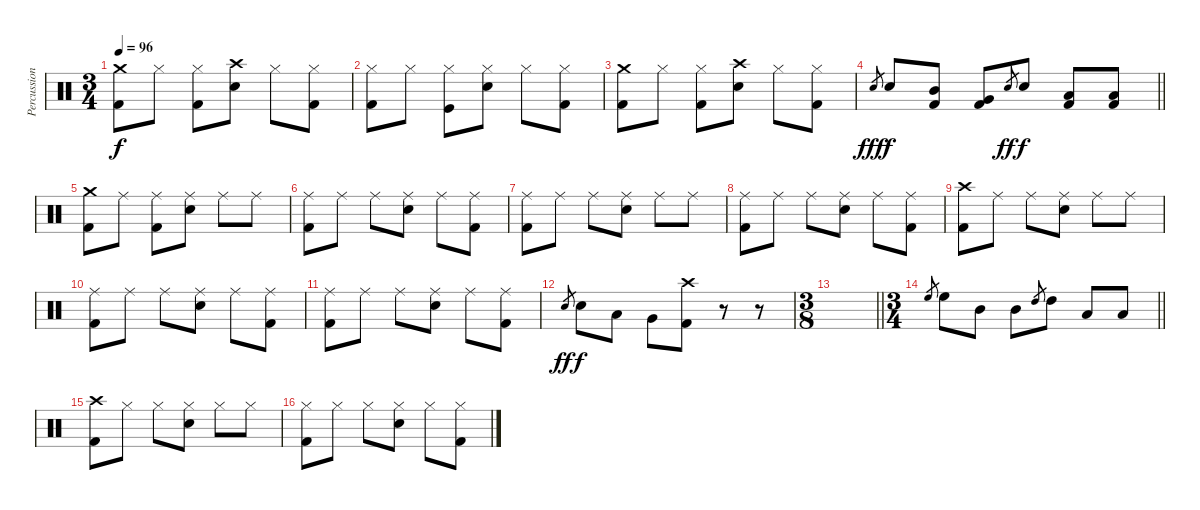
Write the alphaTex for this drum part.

\track ("Percussion" "Percussion") {instrument percussion}
\staff {score}
\articulation defaults
\ts (3 4)
\tempo 96
\clef neutral
\ks c
("Crash medium (hit)" "Kick (hit) 2").8{dy f} "Hi-Hat (closed)".8 ("Hi-Hat (closed)" "Kick (hit) 2").8 ("Crash high (hit)" "Snare (hit) 2").8 "Hi-Hat (closed)".8 ("Hi-Hat (closed)" "Kick (hit) 2").8 |
("Hi-Hat (closed)" "Kick (hit) 2").8 "Hi-Hat (closed)".8 ("Hi-Hat (closed)" "Kick (hit)").8 ("Hi-Hat (closed)" "Snare (hit) 2").8 "Hi-Hat (closed)".8 ("Hi-Hat (closed)" "Kick (hit) 2").8 |
("Crash medium (hit)" "Kick (hit) 2").8 "Hi-Hat (closed)".8 ("Hi-Hat (closed)" "Kick (hit) 2").8 ("Crash high (hit)" "Snare (hit) 2").8 "Hi-Hat (closed)".8 ("Hi-Hat (closed)" "Kick (hit) 2").8 |
\barLineRight lightlight "Snare (hit) 2".8{gr dy fff} "Snare (hit) 2".8{dy f}
("Mid Tom (hit)" "Kick (hit) 2").8 ("Very Low Tom (hit)" "Kick (hit) 2").8 "Snare (hit) 2".8{gr dy ff} "Snare (hit) 2".8{dy f} ("Low Tom (hit)" "Kick (hit) 2").8 ("Low Floor Tom (hit)" "Kick (hit) 2").8 |
("Crash medium (hit)" "Kick (hit) 2").8 "Ride (middle)".8 ("Ride (middle)" "Kick (hit) 2").8 ("Ride (middle)" "Snare (hit) 2").8 "Ride (middle)".8 "Ride (middle)".8 |
("Ride (middle)" "Kick (hit) 2").8 "Ride (middle)".8 "Ride (middle)".8 ("Ride (middle)" "Snare (hit) 2").8 "Ride (middle)".8 ("Ride (middle)" "Kick (hit) 2").8 |
("Ride (middle)" "Kick (hit) 2").8 "Ride (middle)".8 "Ride (middle)".8 ("Ride (middle)" "Snare (hit) 2").8 "Ride (middle)".8 "Ride (middle)".8 |
("Ride (middle)" "Kick (hit) 2").8 "Ride (middle)".8 "Ride (middle)".8 ("Ride (middle)" "Snare (hit) 2").8 "Ride (middle)".8 ("Ride (middle)" "Kick (hit) 2").8 |
("Crash high (hit)" "Kick (hit) 2").8 "Ride (middle)".8 "Ride (middle)".8 ("Ride (middle)" "Snare (hit) 2").8 "Ride (middle)".8 "Ride (middle)".8 |
("Ride (middle)" "Kick (hit) 2").8 "Ride (middle)".8 "Ride (middle)".8 ("Ride (middle)" "Snare (hit) 2").8 "Ride (middle)".8 ("Ride (middle)" "Kick (hit) 2").8 |
("Ride (middle)" "Kick (hit) 2").8 "Ride (middle)".8 "Ride (middle)".8 ("Ride (middle)" "Snare (hit) 2").8 "Ride (middle)".8 ("Ride (middle)" "Kick (hit) 2").8 |
"Snare (hit) 2".8{gr dy ff} "Snare (hit) 2".8{dy f} "Low Tom (hit)".8 "Very Low Tom (hit)".8 ("Crash high (hit)" "Kick (hit) 2").8 r.8 r.8 |
\ts (3 8)
\barLineRight lightlight
|
\ts (3 4)
\barLineRight lightlight "High Floor Tom (hit)".8{gr} "High Floor Tom (hit)".8 "Mid Tom (hit)".8 "Mid Tom (hit)".8 "High Tom (hit)".8{gr} "High Tom (hit)".8 "Low Tom (hit)".8 "Low Tom (hit)".8
|
("Crash high (hit)" "Kick (hit) 2").8 "Hi-Hat (closed)".8 "Hi-Hat (closed)".8 ("Hi-Hat (closed)" "Snare (hit) 2").8 "Hi-Hat (closed)".8 "Hi-Hat (closed)".8 |
("Hi-Hat (closed)" "Kick (hit) 2").8 "Hi-Hat (closed)".8 "Hi-Hat (closed)".8 ("Hi-Hat (closed)" "Snare (hit) 2").8 "Hi-Hat (closed)".8 ("Hi-Hat (closed)" "Kick (hit) 2").8
